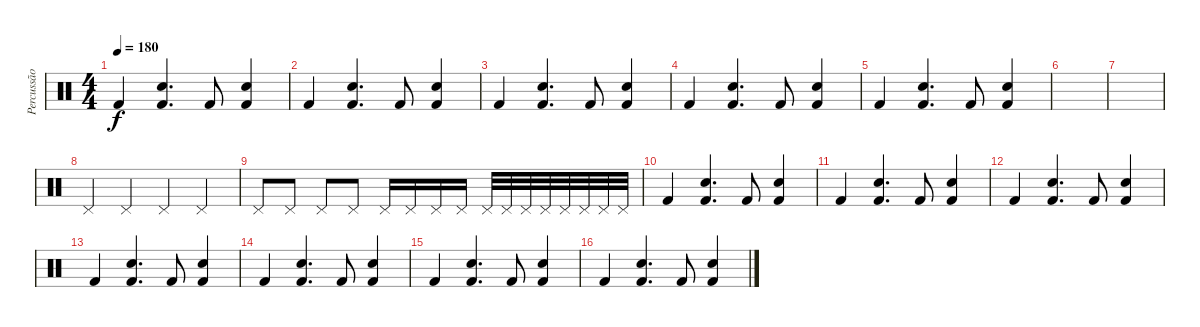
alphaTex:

\track ("Percussão" "Percussão") {instrument percussion}
\staff {score}
\articulation defaults
\ts (4 4)
\tempo 180
\clef neutral
\ks c "Kick (hit) 2".4{dy f}
("Kick (hit) 2" "Snare (hit) 2").4{d} "Kick (hit) 2".8 ("Kick (hit) 2" "Snare (hit) 2").4 |
"Kick (hit) 2".4 ("Kick (hit) 2" "Snare (hit) 2").4{d} "Kick (hit) 2".8 ("Kick (hit) 2" "Snare (hit) 2").4 |
"Kick (hit) 2".4 ("Kick (hit) 2" "Snare (hit) 2").4{d} "Kick (hit) 2".8 ("Kick (hit) 2" "Snare (hit) 2").4 |
"Kick (hit) 2".4 ("Kick (hit) 2" "Snare (hit) 2").4{d} "Kick (hit) 2".8 ("Kick (hit) 2" "Snare (hit) 2").4 |
"Kick (hit) 2".4 ("Kick (hit) 2" "Snare (hit) 2").4{d} "Kick (hit) 2".8 ("Kick (hit) 2" "Snare (hit) 2").4 |
|
|
"Pedal Hi-Hat (hit)".4 "Pedal Hi-Hat (hit)".4 "Pedal Hi-Hat (hit)".4 "Pedal Hi-Hat (hit)".4 |
"Pedal Hi-Hat (hit)".8 "Pedal Hi-Hat (hit)".8 "Pedal Hi-Hat (hit)".8 "Pedal Hi-Hat (hit)".8 "Pedal Hi-Hat (hit)".16 "Pedal Hi-Hat (hit)".16 "Pedal Hi-Hat (hit)".16 "Pedal Hi-Hat (hit)".16 "Pedal Hi-Hat (hit)".32 "Pedal Hi-Hat (hit)".32 "Pedal Hi-Hat (hit)".32 "Pedal Hi-Hat (hit)".32 "Pedal Hi-Hat (hit)".32 "Pedal Hi-Hat (hit)".32 "Pedal Hi-Hat (hit)".32 "Pedal Hi-Hat (hit)".32 |
"Kick (hit) 2".4 ("Kick (hit) 2" "Snare (hit) 2").4{d} "Kick (hit) 2".8 ("Kick (hit) 2" "Snare (hit) 2").4 |
"Kick (hit) 2".4 ("Kick (hit) 2" "Snare (hit) 2").4{d} "Kick (hit) 2".8 ("Kick (hit) 2" "Snare (hit) 2").4 |
"Kick (hit) 2".4 ("Kick (hit) 2" "Snare (hit) 2").4{d} "Kick (hit) 2".8 ("Kick (hit) 2" "Snare (hit) 2").4 |
"Kick (hit) 2".4 ("Kick (hit) 2" "Snare (hit) 2").4{d} "Kick (hit) 2".8 ("Kick (hit) 2" "Snare (hit) 2").4 |
"Kick (hit) 2".4 ("Kick (hit) 2" "Snare (hit) 2").4{d} "Kick (hit) 2".8 ("Kick (hit) 2" "Snare (hit) 2").4 |
"Kick (hit) 2".4 ("Kick (hit) 2" "Snare (hit) 2").4{d} "Kick (hit) 2".8 ("Kick (hit) 2" "Snare (hit) 2").4 |
"Kick (hit) 2".4 ("Kick (hit) 2" "Snare (hit) 2").4{d} "Kick (hit) 2".8 ("Kick (hit) 2" "Snare (hit) 2").4
